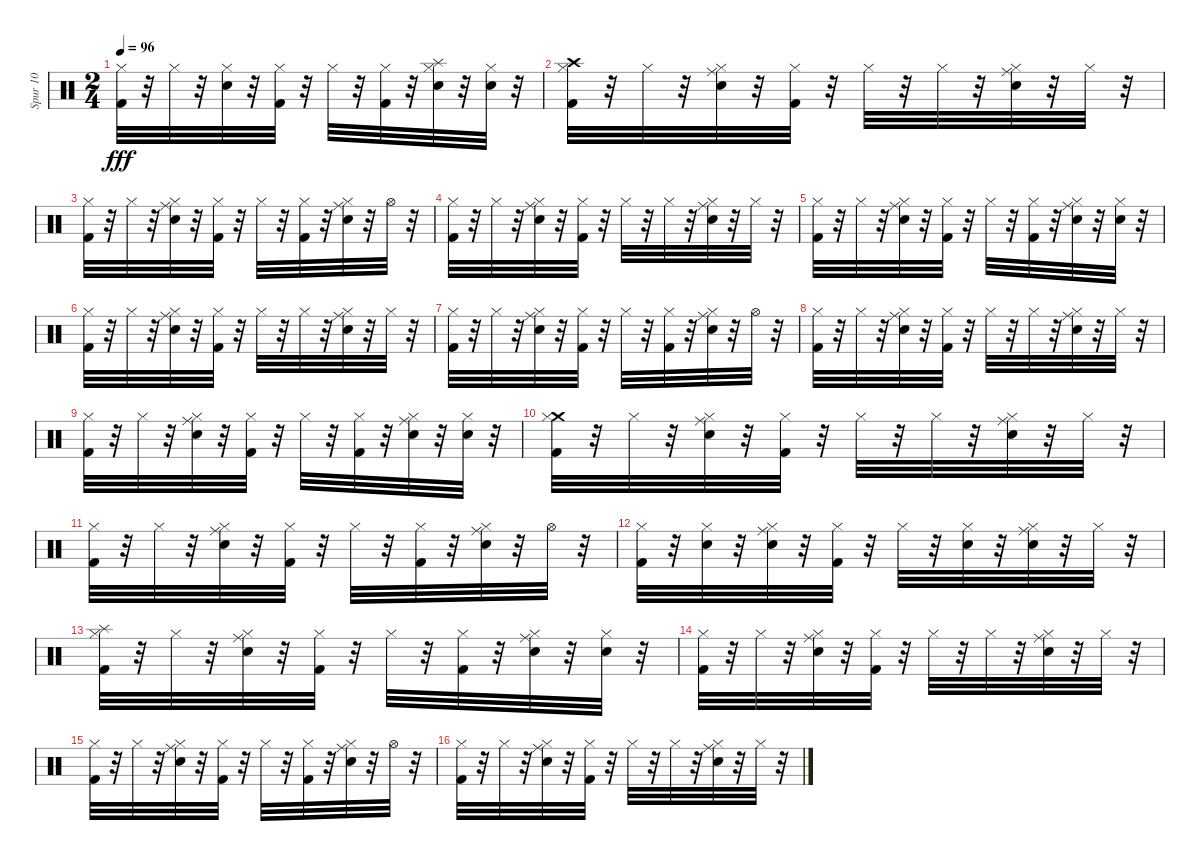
\track ("Spur 10" "Spur 10") {instrument percussion}
\staff {score}
\articulation defaults
\ts (2 4)
\tempo 96
\clef neutral
\ks c
("Hi-Hat (closed)" "Kick (hit) 2").32{dy fff} r.32 "Hi-Hat (closed)".32 r.32 ("Hi-Hat (closed)" "Electric Snare (hit)").32 r.32 ("Hi-Hat (closed)" "Kick (hit) 2").32 r.32 "Hi-Hat (closed)".32 r.32 ("Hi-Hat (closed)" "Kick (hit) 2").32 r.32 ("Hi-Hat (closed)" "Splash (hit)" "Electric Snare (hit)").32 r.32 ("Hi-Hat (closed)" "Electric Snare (hit)").32 r.32 |
("Hi-Hat (closed)" "Crash high (hit)" "Kick (hit) 2").32 r.32 "Hi-Hat (closed)".32 r.32 ("Hi-Hat (closed)" "Electric Snare (hit)" "Ride (middle)").32 r.32 ("Hi-Hat (closed)" "Kick (hit) 2").32 r.32 "Hi-Hat (closed)".32 r.32 "Hi-Hat (closed)".32 r.32 ("Hi-Hat (closed)" "Electric Snare (hit)" "Ride (middle)").32 r.32 "Hi-Hat (closed)".32 r.32 |
("Hi-Hat (closed)" "Kick (hit) 2").32 r.32 "Hi-Hat (closed)".32 r.32 ("Hi-Hat (closed)" "Electric Snare (hit)" "Ride (middle)").32 r.32 ("Hi-Hat (closed)" "Kick (hit) 2").32 r.32 "Hi-Hat (closed)".32 r.32 ("Hi-Hat (closed)" "Kick (hit) 2").32 r.32 ("Hi-Hat (closed)" "Electric Snare (hit)" "Ride (middle)").32 r.32 "Hi-Hat (open)".32 r.32 |
("Hi-Hat (closed)" "Kick (hit) 2").32 r.32 "Hi-Hat (closed)".32 r.32 ("Hi-Hat (closed)" "Ride (middle)" "Electric Snare (hit)").32 r.32 ("Hi-Hat (closed)" "Kick (hit) 2").32 r.32 "Hi-Hat (closed)".32 r.32 "Hi-Hat (closed)".32 r.32 ("Hi-Hat (closed)" "Ride (middle)" "Electric Snare (hit)").32 r.32 "Hi-Hat (closed)".32 r.32 |
("Hi-Hat (closed)" "Kick (hit) 2").32 r.32 "Hi-Hat (closed)".32 r.32 ("Hi-Hat (closed)" "Ride (middle)" "Electric Snare (hit)").32 r.32 ("Hi-Hat (closed)" "Kick (hit) 2").32 r.32 "Hi-Hat (closed)".32 r.32 ("Hi-Hat (closed)" "Kick (hit) 2").32 r.32 ("Hi-Hat (closed)" "Ride (middle)" "Electric Snare (hit)").32 r.32 ("Hi-Hat (closed)" "Electric Snare (hit)").32 r.32 |
("Hi-Hat (closed)" "Kick (hit) 2").32 r.32 "Hi-Hat (closed)".32 r.32 ("Hi-Hat (closed)" "Electric Snare (hit)" "Ride (middle)").32 r.32 ("Hi-Hat (closed)" "Kick (hit) 2").32 r.32 "Hi-Hat (closed)".32 r.32 "Hi-Hat (closed)".32 r.32 ("Hi-Hat (closed)" "Electric Snare (hit)" "Ride (middle)").32 r.32 "Hi-Hat (closed)".32 r.32 |
("Hi-Hat (closed)" "Kick (hit) 2").32 r.32 "Hi-Hat (closed)".32 r.32 ("Hi-Hat (closed)" "Electric Snare (hit)" "Ride (middle)").32 r.32 ("Hi-Hat (closed)" "Kick (hit) 2").32 r.32 "Hi-Hat (closed)".32 r.32 ("Hi-Hat (closed)" "Kick (hit) 2").32 r.32 ("Hi-Hat (closed)" "Electric Snare (hit)" "Ride (middle)").32 r.32 "Hi-Hat (open)".32 r.32 |
("Hi-Hat (closed)" "Kick (hit) 2").32 r.32 "Hi-Hat (closed)".32 r.32 ("Hi-Hat (closed)" "Ride (middle)" "Electric Snare (hit)").32 r.32 ("Hi-Hat (closed)" "Kick (hit) 2").32 r.32 "Hi-Hat (closed)".32 r.32 "Hi-Hat (closed)".32 r.32 ("Hi-Hat (closed)" "Ride (middle)" "Electric Snare (hit)").32 r.32 "Hi-Hat (closed)".32 r.32 |
("Hi-Hat (closed)" "Kick (hit) 2").32 r.32 "Hi-Hat (closed)".32 r.32 ("Hi-Hat (closed)" "Ride (middle)" "Electric Snare (hit)").32 r.32 ("Hi-Hat (closed)" "Kick (hit) 2").32 r.32 "Hi-Hat (closed)".32 r.32 ("Hi-Hat (closed)" "Kick (hit) 2").32 r.32 ("Hi-Hat (closed)" "Ride (middle)" "Electric Snare (hit)").32 r.32 ("Hi-Hat (closed)" "Electric Snare (hit)").32 r.32 |
("Crash medium (hit)" "Hi-Hat (closed)" "Kick (hit) 2").32 r.32 "Hi-Hat (closed)".32 r.32 ("Hi-Hat (closed)" "Electric Snare (hit)" "Ride (middle)").32 r.32 ("Hi-Hat (closed)" "Kick (hit) 2").32 r.32 "Hi-Hat (closed)".32 r.32 "Hi-Hat (closed)".32 r.32 ("Hi-Hat (closed)" "Electric Snare (hit)" "Ride (middle)").32 r.32 "Hi-Hat (closed)".32 r.32 |
("Hi-Hat (closed)" "Kick (hit) 2").32 r.32 "Hi-Hat (closed)".32 r.32 ("Hi-Hat (closed)" "Electric Snare (hit)" "Ride (middle)").32 r.32 ("Hi-Hat (closed)" "Kick (hit) 2").32 r.32 "Hi-Hat (closed)".32 r.32 ("Hi-Hat (closed)" "Kick (hit) 2").32 r.32 ("Hi-Hat (closed)" "Electric Snare (hit)" "Ride (middle)").32 r.32 "Hi-Hat (open)".32 r.32 |
("Hi-Hat (closed)" "Kick (hit) 2").32 r.32 ("Hi-Hat (closed)" "Electric Snare (hit)").32 r.32 ("Hi-Hat (closed)" "Ride (middle)" "Electric Snare (hit)").32 r.32 ("Hi-Hat (closed)" "Kick (hit) 2").32 r.32 "Hi-Hat (closed)".32 r.32 ("Hi-Hat (closed)" "Electric Snare (hit)").32 r.32 ("Hi-Hat (closed)" "Ride (middle)" "Electric Snare (hit)").32 r.32 "Hi-Hat (closed)".32 r.32 |
("Hi-Hat (closed)" "Splash (hit)" "Kick (hit) 2").32 r.32 "Hi-Hat (closed)".32 r.32 ("Hi-Hat (closed)" "Ride (middle)" "Electric Snare (hit)").32 r.32 ("Hi-Hat (closed)" "Kick (hit) 2").32 r.32 "Hi-Hat (closed)".32 r.32 ("Hi-Hat (closed)" "Kick (hit) 2").32 r.32 ("Hi-Hat (closed)" "Ride (middle)" "Electric Snare (hit)").32 r.32 ("Hi-Hat (closed)" "Electric Snare (hit)").32 r.32 |
("Hi-Hat (closed)" "Kick (hit) 2").32 r.32 "Hi-Hat (closed)".32 r.32 ("Hi-Hat (closed)" "Electric Snare (hit)" "Ride (middle)").32 r.32 ("Hi-Hat (closed)" "Kick (hit) 2").32 r.32 "Hi-Hat (closed)".32 r.32 "Hi-Hat (closed)".32 r.32 ("Hi-Hat (closed)" "Electric Snare (hit)" "Ride (middle)").32 r.32 "Hi-Hat (closed)".32 r.32 |
("Hi-Hat (closed)" "Kick (hit) 2").32 r.32 "Hi-Hat (closed)".32 r.32 ("Hi-Hat (closed)" "Electric Snare (hit)" "Ride (middle)").32 r.32 ("Hi-Hat (closed)" "Kick (hit) 2").32 r.32 "Hi-Hat (closed)".32 r.32 ("Hi-Hat (closed)" "Kick (hit) 2").32 r.32 ("Hi-Hat (closed)" "Electric Snare (hit)" "Ride (middle)").32 r.32 "Hi-Hat (open)".32 r.32 |
("Hi-Hat (closed)" "Kick (hit) 2").32 r.32 "Hi-Hat (closed)".32 r.32 ("Hi-Hat (closed)" "Ride (middle)" "Electric Snare (hit)").32 r.32 ("Hi-Hat (closed)" "Kick (hit) 2").32 r.32 "Hi-Hat (closed)".32 r.32 "Hi-Hat (closed)".32 r.32 ("Hi-Hat (closed)" "Ride (middle)" "Electric Snare (hit)").32 r.32 "Hi-Hat (closed)".32 r.32
